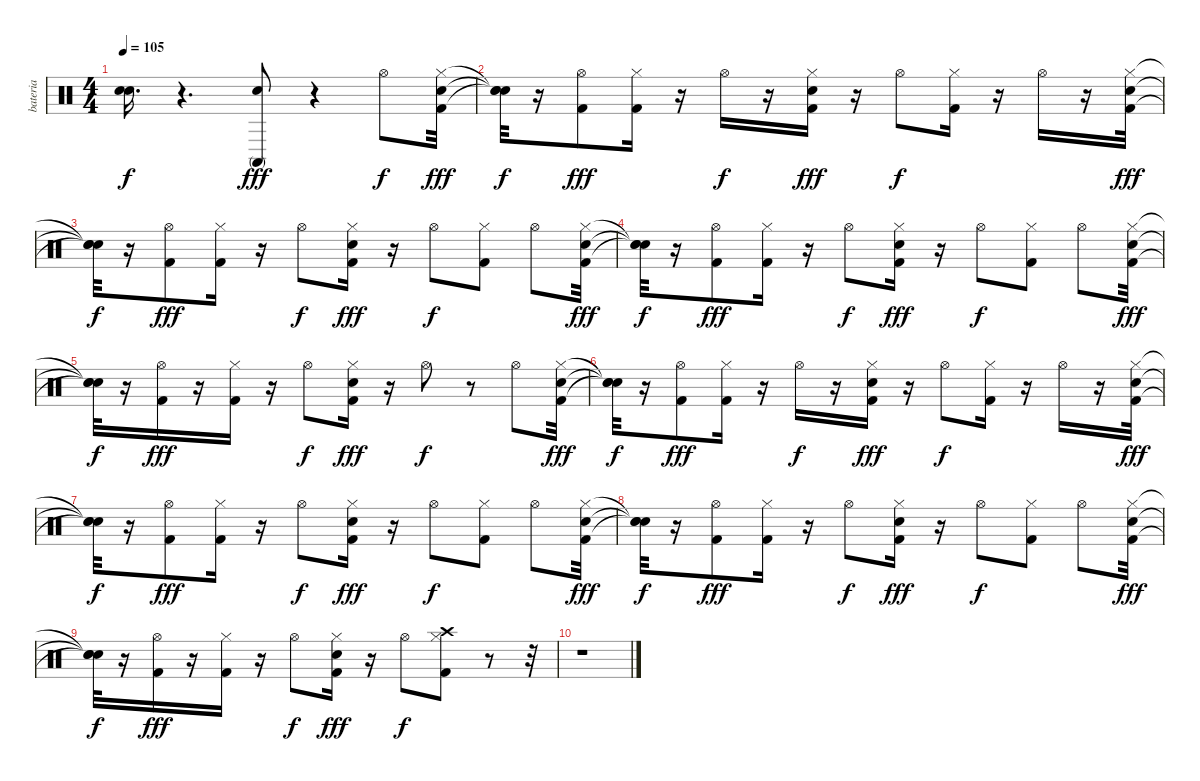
\track ("bateria" "bateria") {instrument percussion}
\staff {score}
\articulation defaults
\ts (4 4)
\tempo 105
\clef neutral
\ks c
("Snare (hit)"{t} "Snare (hit)"{t}).16{d dy f} r.4{d} ("Conga high (mute)" "Snare (hit) 2").8{dy fff} r.4 "Hi-Hat (open)".8{dy f} ("Kick (hit) 2" "Snare (hit) 2" "Hi-Hat (closed)").32{dy fff} |
("Snare (hit)"{t} "Snare (hit)"{t} "Snare (hit)"{t}).32{dy f} r.16 ("Kick (hit) 2" "Hi-Hat (open)").8{dy fff} ("Kick (hit) 2" "Hi-Hat (closed)").16 r.16 "Hi-Hat (open)".16{dy f} r.16 ("Kick (hit) 2" "Snare (hit) 2" "Hi-Hat (closed)").16{dy fff} r.16 "Hi-Hat (open)".8{dy f} ("Hi-Hat (closed)" "Kick (hit) 2").16 r.16 "Hi-Hat (open)".16 r.16 ("Kick (hit) 2" "Snare (hit) 2" "Hi-Hat (closed)").32{dy fff} |
("Snare (hit)"{t} "Snare (hit)"{t} "Snare (hit)"{t}).32{dy f} r.16 ("Kick (hit) 2" "Hi-Hat (open)").8{dy fff} ("Kick (hit) 2" "Hi-Hat (closed)").16 r.16 "Hi-Hat (open)".8{dy f} ("Kick (hit) 2" "Snare (hit) 2" "Hi-Hat (closed)").16{dy fff} r.16 "Hi-Hat (open)".8{dy f} ("Hi-Hat (closed)" "Kick (hit) 2").8 "Hi-Hat (open)".8 ("Kick (hit) 2" "Snare (hit) 2" "Hi-Hat (closed)").32{dy fff} |
("Snare (hit)"{t} "Snare (hit)"{t} "Snare (hit)"{t}).32{dy f} r.16 ("Kick (hit) 2" "Hi-Hat (open)").8{dy fff} ("Kick (hit) 2" "Hi-Hat (closed)").16 r.16 "Hi-Hat (open)".8{dy f} ("Kick (hit) 2" "Snare (hit) 2" "Hi-Hat (closed)").16{dy fff} r.16 "Hi-Hat (open)".8{dy f} ("Hi-Hat (closed)" "Kick (hit) 2").8 "Hi-Hat (open)".8 ("Kick (hit) 2" "Snare (hit) 2" "Hi-Hat (closed)").32{dy fff} |
("Snare (hit)"{t} "Snare (hit)"{t} "Snare (hit)"{t}).32{dy f} r.16 ("Kick (hit) 2" "Hi-Hat (open)").16{dy fff} r.16 ("Kick (hit) 2" "Hi-Hat (closed)").16 r.16 "Hi-Hat (open)".8{dy f} ("Kick (hit) 2" "Snare (hit) 2" "Hi-Hat (closed)").16{dy fff} r.16 "Hi-Hat (open)".8{dy f} r.8 "Hi-Hat (open)".8 ("Kick (hit) 2" "Snare (hit) 2" "Hi-Hat (closed)").32{dy fff} |
("Snare (hit)"{t} "Snare (hit)"{t} "Snare (hit)"{t}).32{dy f} r.16 ("Kick (hit) 2" "Hi-Hat (open)").8{dy fff} ("Kick (hit) 2" "Hi-Hat (closed)").16 r.16 "Hi-Hat (open)".16{dy f} r.16 ("Kick (hit) 2" "Snare (hit) 2" "Hi-Hat (closed)").16{dy fff} r.16 "Hi-Hat (open)".8{dy f} ("Hi-Hat (closed)" "Kick (hit) 2").16 r.16 "Hi-Hat (open)".16 r.16 ("Kick (hit) 2" "Snare (hit) 2" "Hi-Hat (closed)").32{dy fff} |
("Snare (hit)"{t} "Snare (hit)"{t} "Snare (hit)"{t}).32{dy f} r.16 ("Kick (hit) 2" "Hi-Hat (open)").8{dy fff} ("Kick (hit) 2" "Hi-Hat (closed)").16 r.16 "Hi-Hat (open)".8{dy f} ("Kick (hit) 2" "Snare (hit) 2" "Hi-Hat (closed)").16{dy fff} r.16 "Hi-Hat (open)".8{dy f} ("Hi-Hat (closed)" "Kick (hit) 2").8 "Hi-Hat (open)".8 ("Kick (hit) 2" "Snare (hit) 2" "Hi-Hat (closed)").32{dy fff} |
("Snare (hit)"{t} "Snare (hit)"{t} "Snare (hit)"{t}).32{dy f} r.16 ("Kick (hit) 2" "Hi-Hat (open)").8{dy fff} ("Kick (hit) 2" "Hi-Hat (closed)").16 r.16 "Hi-Hat (open)".8{dy f} ("Kick (hit) 2" "Snare (hit) 2" "Hi-Hat (closed)").16{dy fff} r.16 "Hi-Hat (open)".8{dy f} ("Hi-Hat (closed)" "Kick (hit) 2").8 "Hi-Hat (open)".8 ("Kick (hit) 2" "Snare (hit) 2" "Hi-Hat (closed)").32{dy fff} |
("Snare (hit)"{t} "Snare (hit)"{t} "Snare (hit)"{t}).32{dy f} r.16 ("Kick (hit) 2" "Hi-Hat (open)").16{dy fff} r.16 ("Kick (hit) 2" "Hi-Hat (closed)").16 r.16 "Hi-Hat (open)".8{dy f} ("Kick (hit) 2" "Snare (hit) 2" "Hi-Hat (closed)").16{dy fff} r.16 "Hi-Hat (open)".8{dy f} ("Hi-Hat (closed)" "Kick (hit) 2" "Crash high (hit)").8 r.8 r.32 |
r.1
